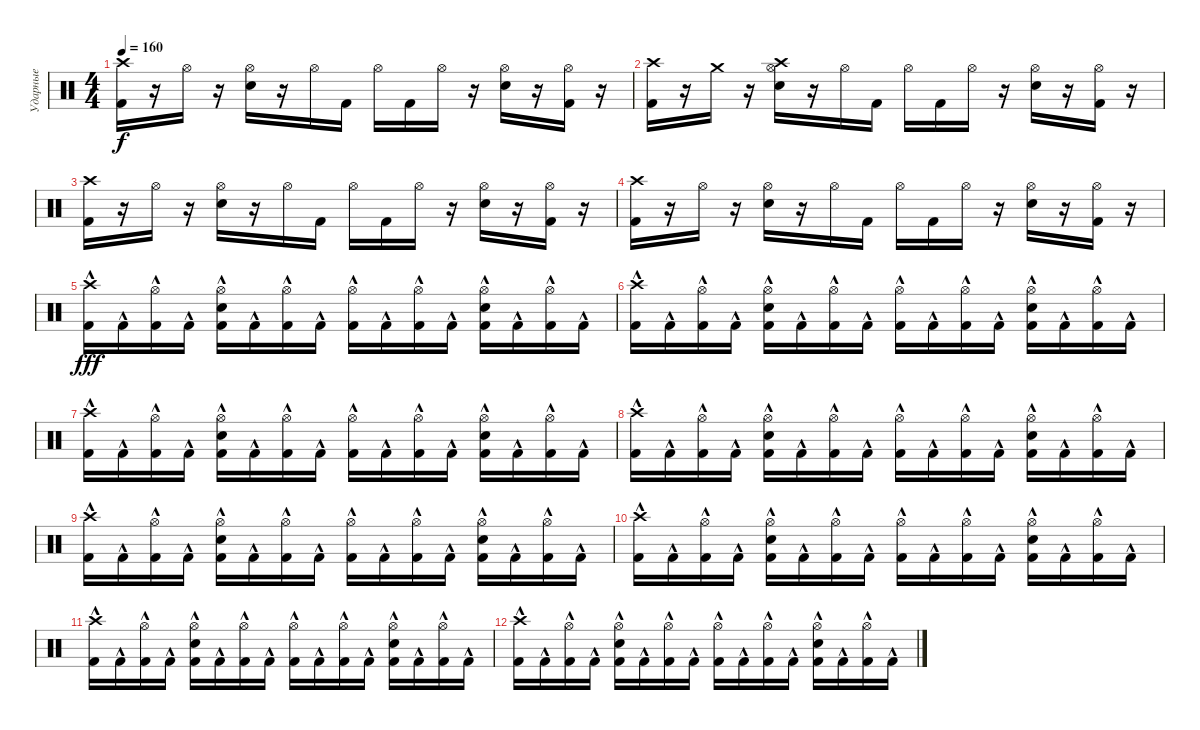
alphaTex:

\track ("Ударные" "Ударные") {instrument percussion}
\staff {score}
\articulation defaults
\ts (4 4)
\tempo 160
\clef neutral
\ks c
("Crash high (hit)" "Kick (hit) 2").16{dy f} r.16 "Hi-Hat (open)".16 r.16 ("Hi-Hat (open)" "Snare (hit) 2").16 r.16 "Hi-Hat (open)".16 "Kick (hit) 2".16 "Hi-Hat (open)".16 "Kick (hit) 2".16 "Hi-Hat (open)".16 r.16 ("Hi-Hat (open)" "Snare (hit) 2").16 r.16 ("Hi-Hat (open)" "Kick (hit) 2").16 r.16 |
("Crash high (hit)" "Kick (hit) 2").16 r.16 "Crash medium (hit)".16 r.16 ("Crash high (hit)" "Hi-Hat (open)" "Snare (hit) 2").16 r.16 "Hi-Hat (open)".16 "Kick (hit) 2".16 "Hi-Hat (open)".16 "Kick (hit) 2".16 "Hi-Hat (open)".16 r.16 ("Hi-Hat (open)" "Snare (hit) 2").16 r.16 ("Hi-Hat (open)" "Kick (hit) 2").16 r.16 |
("Crash high (hit)" "Kick (hit) 2").16 r.16 "Hi-Hat (open)".16 r.16 ("Hi-Hat (open)" "Snare (hit) 2").16 r.16 "Hi-Hat (open)".16 "Kick (hit) 2".16 "Hi-Hat (open)".16 "Kick (hit) 2".16 "Hi-Hat (open)".16 r.16 ("Hi-Hat (open)" "Snare (hit) 2").16 r.16 ("Hi-Hat (open)" "Kick (hit) 2").16 r.16 |
("Crash high (hit)" "Kick (hit) 2").16 r.16 "Hi-Hat (open)".16 r.16 ("Hi-Hat (open)" "Snare (hit) 2").16 r.16 "Hi-Hat (open)".16 "Kick (hit) 2".16 "Hi-Hat (open)".16 "Kick (hit) 2".16 "Hi-Hat (open)".16 r.16 ("Hi-Hat (open)" "Snare (hit) 2").16 r.16 ("Hi-Hat (open)" "Kick (hit) 2").16 r.16 |
("Crash high (hit)" "Kick (hit) 2"{hac}).16{dy fff} "Kick (hit) 2"{hac}.16 ("Hi-Hat (open)" "Kick (hit) 2"{hac}).16 "Kick (hit) 2"{hac}.16 ("Hi-Hat (open)" "Snare (hit) 2" "Kick (hit) 2"{hac}).16 "Kick (hit) 2"{hac}.16 ("Hi-Hat (open)" "Kick (hit) 2"{hac}).16 "Kick (hit) 2"{hac}.16 ("Hi-Hat (open)" "Kick (hit) 2"{hac}).16 "Kick (hit) 2"{hac}.16 ("Hi-Hat (open)" "Kick (hit) 2"{hac}).16 "Kick (hit) 2"{hac}.16 ("Hi-Hat (open)" "Snare (hit) 2" "Kick (hit) 2"{hac}).16 "Kick (hit) 2"{hac}.16 ("Hi-Hat (open)" "Kick (hit) 2"{hac}).16 "Kick (hit) 2"{hac}.16 |
("Crash high (hit)" "Kick (hit) 2"{hac}).16 "Kick (hit) 2"{hac}.16 ("Hi-Hat (open)" "Kick (hit) 2"{hac}).16 "Kick (hit) 2"{hac}.16 ("Hi-Hat (open)" "Snare (hit) 2" "Kick (hit) 2"{hac}).16 "Kick (hit) 2"{hac}.16 ("Hi-Hat (open)" "Kick (hit) 2"{hac}).16 "Kick (hit) 2"{hac}.16 ("Hi-Hat (open)" "Kick (hit) 2"{hac}).16 "Kick (hit) 2"{hac}.16 ("Hi-Hat (open)" "Kick (hit) 2"{hac}).16 "Kick (hit) 2"{hac}.16 ("Hi-Hat (open)" "Snare (hit) 2" "Kick (hit) 2"{hac}).16 "Kick (hit) 2"{hac}.16 ("Hi-Hat (open)" "Kick (hit) 2"{hac}).16 "Kick (hit) 2"{hac}.16 |
("Crash high (hit)" "Kick (hit) 2"{hac}).16 "Kick (hit) 2"{hac}.16 ("Hi-Hat (open)" "Kick (hit) 2"{hac}).16 "Kick (hit) 2"{hac}.16 ("Hi-Hat (open)" "Snare (hit) 2" "Kick (hit) 2"{hac}).16 "Kick (hit) 2"{hac}.16 ("Hi-Hat (open)" "Kick (hit) 2"{hac}).16 "Kick (hit) 2"{hac}.16 ("Hi-Hat (open)" "Kick (hit) 2"{hac}).16 "Kick (hit) 2"{hac}.16 ("Hi-Hat (open)" "Kick (hit) 2"{hac}).16 "Kick (hit) 2"{hac}.16 ("Hi-Hat (open)" "Snare (hit) 2" "Kick (hit) 2"{hac}).16 "Kick (hit) 2"{hac}.16 ("Hi-Hat (open)" "Kick (hit) 2"{hac}).16 "Kick (hit) 2"{hac}.16 |
("Crash high (hit)" "Kick (hit) 2"{hac}).16 "Kick (hit) 2"{hac}.16 ("Hi-Hat (open)" "Kick (hit) 2"{hac}).16 "Kick (hit) 2"{hac}.16 ("Hi-Hat (open)" "Snare (hit) 2" "Kick (hit) 2"{hac}).16 "Kick (hit) 2"{hac}.16 ("Hi-Hat (open)" "Kick (hit) 2"{hac}).16 "Kick (hit) 2"{hac}.16 ("Hi-Hat (open)" "Kick (hit) 2"{hac}).16 "Kick (hit) 2"{hac}.16 ("Hi-Hat (open)" "Kick (hit) 2"{hac}).16 "Kick (hit) 2"{hac}.16 ("Hi-Hat (open)" "Snare (hit) 2" "Kick (hit) 2"{hac}).16 "Kick (hit) 2"{hac}.16 ("Hi-Hat (open)" "Kick (hit) 2"{hac}).16 "Kick (hit) 2"{hac}.16 |
("Crash high (hit)" "Kick (hit) 2"{hac}).16 "Kick (hit) 2"{hac}.16 ("Hi-Hat (open)" "Kick (hit) 2"{hac}).16 "Kick (hit) 2"{hac}.16 ("Hi-Hat (open)" "Snare (hit) 2" "Kick (hit) 2"{hac}).16 "Kick (hit) 2"{hac}.16 ("Hi-Hat (open)" "Kick (hit) 2"{hac}).16 "Kick (hit) 2"{hac}.16 ("Hi-Hat (open)" "Kick (hit) 2"{hac}).16 "Kick (hit) 2"{hac}.16 ("Hi-Hat (open)" "Kick (hit) 2"{hac}).16 "Kick (hit) 2"{hac}.16 ("Hi-Hat (open)" "Snare (hit) 2" "Kick (hit) 2"{hac}).16 "Kick (hit) 2"{hac}.16 ("Hi-Hat (open)" "Kick (hit) 2"{hac}).16 "Kick (hit) 2"{hac}.16 |
("Crash high (hit)" "Kick (hit) 2"{hac}).16 "Kick (hit) 2"{hac}.16 ("Hi-Hat (open)" "Kick (hit) 2"{hac}).16 "Kick (hit) 2"{hac}.16 ("Hi-Hat (open)" "Snare (hit) 2" "Kick (hit) 2"{hac}).16 "Kick (hit) 2"{hac}.16 ("Hi-Hat (open)" "Kick (hit) 2"{hac}).16 "Kick (hit) 2"{hac}.16 ("Hi-Hat (open)" "Kick (hit) 2"{hac}).16 "Kick (hit) 2"{hac}.16 ("Hi-Hat (open)" "Kick (hit) 2"{hac}).16 "Kick (hit) 2"{hac}.16 ("Hi-Hat (open)" "Snare (hit) 2" "Kick (hit) 2"{hac}).16 "Kick (hit) 2"{hac}.16 ("Hi-Hat (open)" "Kick (hit) 2"{hac}).16 "Kick (hit) 2"{hac}.16 |
("Crash high (hit)" "Kick (hit) 2"{hac}).16 "Kick (hit) 2"{hac}.16 ("Hi-Hat (open)" "Kick (hit) 2"{hac}).16 "Kick (hit) 2"{hac}.16 ("Hi-Hat (open)" "Snare (hit) 2" "Kick (hit) 2"{hac}).16 "Kick (hit) 2"{hac}.16 ("Hi-Hat (open)" "Kick (hit) 2"{hac}).16 "Kick (hit) 2"{hac}.16 ("Hi-Hat (open)" "Kick (hit) 2"{hac}).16 "Kick (hit) 2"{hac}.16 ("Hi-Hat (open)" "Kick (hit) 2"{hac}).16 "Kick (hit) 2"{hac}.16 ("Hi-Hat (open)" "Snare (hit) 2" "Kick (hit) 2"{hac}).16 "Kick (hit) 2"{hac}.16 ("Hi-Hat (open)" "Kick (hit) 2"{hac}).16 "Kick (hit) 2"{hac}.16 |
("Crash high (hit)" "Kick (hit) 2"{hac}).16 "Kick (hit) 2"{hac}.16 ("Hi-Hat (open)" "Kick (hit) 2"{hac}).16 "Kick (hit) 2"{hac}.16 ("Hi-Hat (open)" "Snare (hit) 2" "Kick (hit) 2"{hac}).16 "Kick (hit) 2"{hac}.16 ("Hi-Hat (open)" "Kick (hit) 2"{hac}).16 "Kick (hit) 2"{hac}.16 ("Hi-Hat (open)" "Kick (hit) 2"{hac}).16 "Kick (hit) 2"{hac}.16 ("Hi-Hat (open)" "Kick (hit) 2"{hac}).16 "Kick (hit) 2"{hac}.16 ("Hi-Hat (open)" "Snare (hit) 2" "Kick (hit) 2"{hac}).16 "Kick (hit) 2"{hac}.16 ("Hi-Hat (open)" "Kick (hit) 2"{hac}).16 "Kick (hit) 2"{hac}.16
